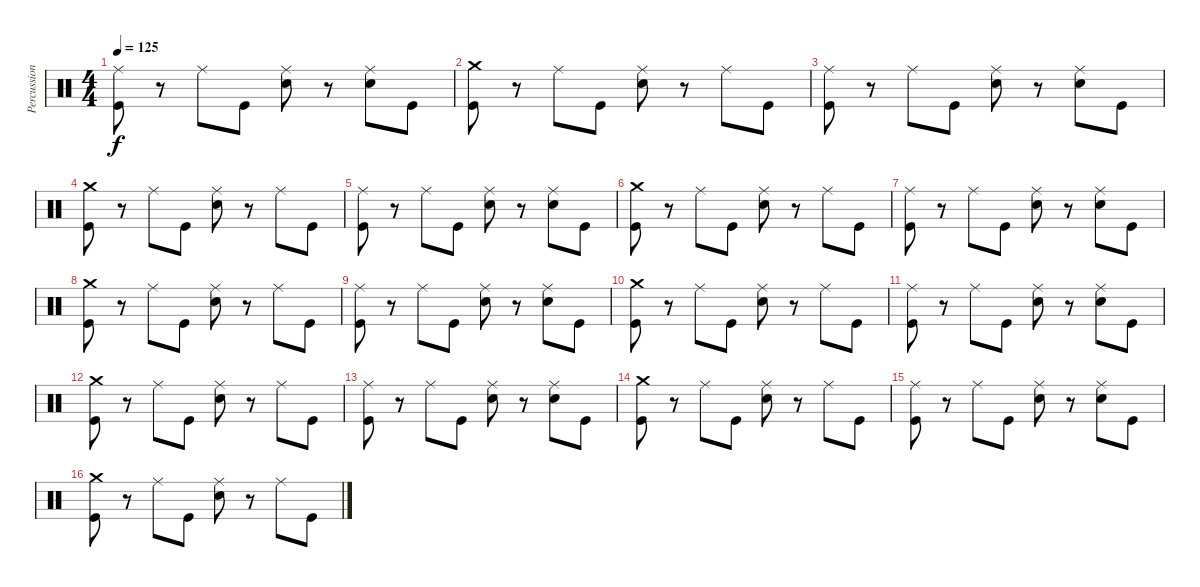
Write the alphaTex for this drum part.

\track ("Percussion" "Percussion") {instrument percussion}
\staff {score}
\articulation defaults
\ts (4 4)
\tempo 125
\clef neutral
\ks c
("Ride (middle)" "Kick (hit)").8{dy f} r.8 "Ride (middle)".8 "Kick (hit)".8 ("Ride (middle)" "Snare (hit) 2").8 r.8 ("Ride (middle)" "Snare (hit) 2").8 "Kick (hit)".8 |
("Crash medium (hit)" "Kick (hit)").8 r.8 "Ride (middle)".8 "Kick (hit)".8 ("Ride (middle)" "Snare (hit) 2").8 r.8 "Ride (middle)".8 "Kick (hit)".8 |
("Ride (middle)" "Kick (hit)").8 r.8 "Ride (middle)".8 "Kick (hit)".8 ("Ride (middle)" "Snare (hit) 2").8 r.8 ("Ride (middle)" "Snare (hit) 2").8 "Kick (hit)".8 |
("Crash medium (hit)" "Kick (hit)").8 r.8 "Ride (middle)".8 "Kick (hit)".8 ("Ride (middle)" "Snare (hit) 2").8 r.8 "Ride (middle)".8 "Kick (hit)".8 |
("Ride (middle)" "Kick (hit)").8 r.8 "Ride (middle)".8 "Kick (hit)".8 ("Ride (middle)" "Snare (hit) 2").8 r.8 ("Ride (middle)" "Snare (hit) 2").8 "Kick (hit)".8 |
("Crash medium (hit)" "Kick (hit)").8 r.8 "Ride (middle)".8 "Kick (hit)".8 ("Ride (middle)" "Snare (hit) 2").8 r.8 "Ride (middle)".8 "Kick (hit)".8 |
("Ride (middle)" "Kick (hit)").8 r.8 "Ride (middle)".8 "Kick (hit)".8 ("Ride (middle)" "Snare (hit) 2").8 r.8 ("Ride (middle)" "Snare (hit) 2").8 "Kick (hit)".8 |
("Crash medium (hit)" "Kick (hit)").8 r.8 "Ride (middle)".8 "Kick (hit)".8 ("Ride (middle)" "Snare (hit) 2").8 r.8 "Ride (middle)".8 "Kick (hit)".8 |
("Ride (middle)" "Kick (hit)").8 r.8 "Ride (middle)".8 "Kick (hit)".8 ("Ride (middle)" "Snare (hit) 2").8 r.8 ("Ride (middle)" "Snare (hit) 2").8 "Kick (hit)".8 |
("Crash medium (hit)" "Kick (hit)").8 r.8 "Ride (middle)".8 "Kick (hit)".8 ("Ride (middle)" "Snare (hit) 2").8 r.8 "Ride (middle)".8 "Kick (hit)".8 |
("Ride (middle)" "Kick (hit)").8 r.8 "Ride (middle)".8 "Kick (hit)".8 ("Ride (middle)" "Snare (hit) 2").8 r.8 ("Ride (middle)" "Snare (hit) 2").8 "Kick (hit)".8 |
("Crash medium (hit)" "Kick (hit)").8 r.8 "Ride (middle)".8 "Kick (hit)".8 ("Ride (middle)" "Snare (hit) 2").8 r.8 "Ride (middle)".8 "Kick (hit)".8 |
("Ride (middle)" "Kick (hit)").8 r.8 "Ride (middle)".8 "Kick (hit)".8 ("Ride (middle)" "Snare (hit) 2").8 r.8 ("Ride (middle)" "Snare (hit) 2").8 "Kick (hit)".8 |
("Crash medium (hit)" "Kick (hit)").8 r.8 "Ride (middle)".8 "Kick (hit)".8 ("Ride (middle)" "Snare (hit) 2").8 r.8 "Ride (middle)".8 "Kick (hit)".8 |
("Ride (middle)" "Kick (hit)").8 r.8 "Ride (middle)".8 "Kick (hit)".8 ("Ride (middle)" "Snare (hit) 2").8 r.8 ("Ride (middle)" "Snare (hit) 2").8 "Kick (hit)".8 |
("Crash medium (hit)" "Kick (hit)").8 r.8 "Ride (middle)".8 "Kick (hit)".8 ("Ride (middle)" "Snare (hit) 2").8 r.8 "Ride (middle)".8 "Kick (hit)".8
